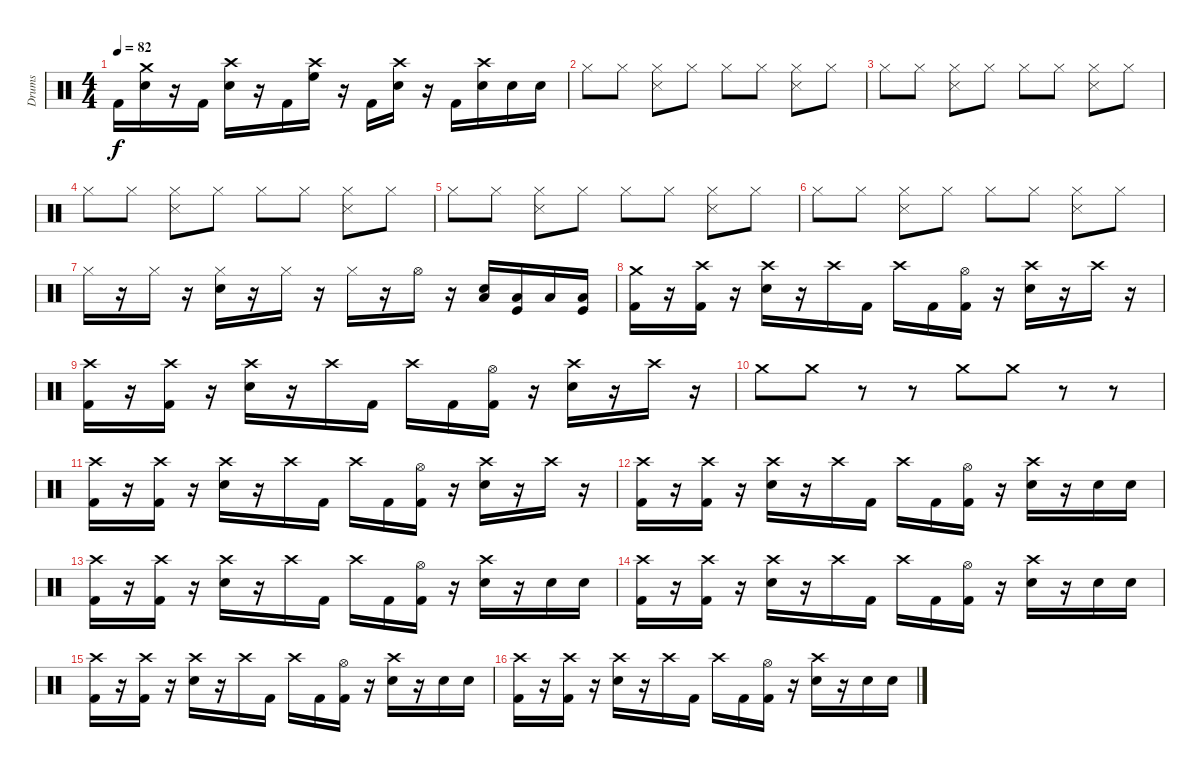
\track ("Drums" "Drums") {instrument percussion}
\staff {score}
\articulation defaults
\ts (4 4)
\tempo 82
\clef neutral
\ks c "Kick (hit) 2".16{dy f}
("Crash medium (hit)" "Electric Snare (hit)").16 r.16 "Kick (hit) 2".16 ("Crash high (hit)" "Electric Snare (hit)").16 r.16 "Kick (hit) 2".16 ("Crash high (hit)" "High Floor Tom (hit)").16 r.16 "Kick (hit) 2".16 ("Crash high (hit)" "Electric Snare (hit)").16 r.16 "Kick (hit) 2".16 ("Crash high (hit)" "Electric Snare (hit)").16 "Electric Snare (hit)".16 "Electric Snare (hit)".16 |
"Hi-Hat (closed)".8 "Hi-Hat (closed)".8 ("Hi-Hat (closed)" "Snare (side stick) 3").8 "Hi-Hat (closed)".8 "Hi-Hat (closed)".8 "Hi-Hat (closed)".8 ("Hi-Hat (closed)" "Snare (side stick) 3").8 "Hi-Hat (closed)".8 |
"Hi-Hat (closed)".8 "Hi-Hat (closed)".8 ("Hi-Hat (closed)" "Snare (side stick) 3").8 "Hi-Hat (closed)".8 "Hi-Hat (closed)".8 "Hi-Hat (closed)".8 ("Hi-Hat (closed)" "Snare (side stick) 3").8 "Hi-Hat (closed)".8 |
"Hi-Hat (closed)".8 "Hi-Hat (closed)".8 ("Hi-Hat (closed)" "Snare (side stick) 3").8 "Hi-Hat (closed)".8 "Hi-Hat (closed)".8 "Hi-Hat (closed)".8 ("Hi-Hat (closed)" "Snare (side stick) 3").8 "Hi-Hat (closed)".8 |
"Hi-Hat (closed)".8 "Hi-Hat (closed)".8 ("Hi-Hat (closed)" "Snare (side stick) 3").8 "Hi-Hat (closed)".8 "Hi-Hat (closed)".8 "Hi-Hat (closed)".8 ("Hi-Hat (closed)" "Snare (side stick) 3").8 "Hi-Hat (closed)".8 |
"Hi-Hat (closed)".8 "Hi-Hat (closed)".8 ("Hi-Hat (closed)" "Snare (side stick) 3").8 "Hi-Hat (closed)".8 "Hi-Hat (closed)".8 "Hi-Hat (closed)".8 ("Hi-Hat (closed)" "Snare (side stick) 3").8 "Hi-Hat (closed)".8 |
"Hi-Hat (closed)".16 r.16 "Hi-Hat (closed)".16 r.16 ("Hi-Hat (closed)" "Electric Snare (hit)").16 r.16 "Hi-Hat (closed)".16 r.16 "Hi-Hat (closed)".16 r.16 "Hi-Hat (open)".16 r.16 ("Low Tom (hit)" "Electric Snare (hit)").16 ("Low Tom (hit)" "Kick (hit)").16 "Low Tom (hit)".16 ("Low Tom (hit)" "Kick (hit)").16 |
("Crash medium (hit)" "Kick (hit) 2").16 r.16 ("Crash high (hit)" "Kick (hit) 2").16 r.16 ("Crash high (hit)" "Electric Snare (hit)").16 r.16 "Crash high (hit)".16 "Kick (hit) 2".16 "Crash high (hit)".16 "Kick (hit) 2".16 ("Hi-Hat (open)" "Kick (hit) 2").16 r.16 ("Crash high (hit)" "Electric Snare (hit)").16 r.16 "Crash high (hit)".16 r.16 |
("Crash high (hit)" "Kick (hit) 2").16 r.16 ("Crash high (hit)" "Kick (hit) 2").16 r.16 ("Crash high (hit)" "Electric Snare (hit)").16 r.16 "Crash high (hit)".16 "Kick (hit) 2".16 "Crash high (hit)".16 "Kick (hit) 2".16 ("Hi-Hat (open)" "Kick (hit) 2").16 r.16 ("Crash high (hit)" "Electric Snare (hit)").16 r.16 "Crash high (hit)".16 r.16 |
"Crash medium (hit)".8 "Crash medium (hit)".8 r.8 r.8 "Crash medium (hit)".8 "Crash medium (hit)".8 r.8 r.8 |
("Crash high (hit)" "Kick (hit) 2").16 r.16 ("Crash high (hit)" "Kick (hit) 2").16 r.16 ("Crash high (hit)" "Electric Snare (hit)").16 r.16 "Crash high (hit)".16 "Kick (hit) 2".16 "Crash high (hit)".16 "Kick (hit) 2".16 ("Hi-Hat (open)" "Kick (hit) 2").16 r.16 ("Crash high (hit)" "Electric Snare (hit)").16 r.16 "Crash high (hit)".16 r.16 |
("Crash high (hit)" "Kick (hit) 2").16 r.16 ("Crash high (hit)" "Kick (hit) 2").16 r.16 ("Crash high (hit)" "Electric Snare (hit)").16 r.16 "Crash high (hit)".16 "Kick (hit) 2".16 "Crash high (hit)".16 "Kick (hit) 2".16 ("Hi-Hat (open)" "Kick (hit) 2").16 r.16 ("Crash high (hit)" "Electric Snare (hit)").16 r.16 "Electric Snare (hit)".16 "Electric Snare (hit)".16 |
("Crash high (hit)" "Kick (hit) 2").16 r.16 ("Crash high (hit)" "Kick (hit) 2").16 r.16 ("Crash high (hit)" "Electric Snare (hit)").16 r.16 "Crash high (hit)".16 "Kick (hit) 2".16 "Crash high (hit)".16 "Kick (hit) 2".16 ("Hi-Hat (open)" "Kick (hit) 2").16 r.16 ("Crash high (hit)" "Electric Snare (hit)").16 r.16 "Electric Snare (hit)".16 "Electric Snare (hit)".16 |
("Crash high (hit)" "Kick (hit) 2").16 r.16 ("Crash high (hit)" "Kick (hit) 2").16 r.16 ("Crash high (hit)" "Electric Snare (hit)").16 r.16 "Crash high (hit)".16 "Kick (hit) 2".16 "Crash high (hit)".16 "Kick (hit) 2".16 ("Hi-Hat (open)" "Kick (hit) 2").16 r.16 ("Crash high (hit)" "Electric Snare (hit)").16 r.16 "Electric Snare (hit)".16 "Electric Snare (hit)".16 |
("Crash high (hit)" "Kick (hit) 2").16 r.16 ("Crash high (hit)" "Kick (hit) 2").16 r.16 ("Crash high (hit)" "Electric Snare (hit)").16 r.16 "Crash high (hit)".16 "Kick (hit) 2".16 "Crash high (hit)".16 "Kick (hit) 2".16 ("Hi-Hat (open)" "Kick (hit) 2").16 r.16 ("Crash high (hit)" "Electric Snare (hit)").16 r.16 "Electric Snare (hit)".16 "Electric Snare (hit)".16 |
("Crash high (hit)" "Kick (hit) 2").16 r.16 ("Crash high (hit)" "Kick (hit) 2").16 r.16 ("Crash high (hit)" "Electric Snare (hit)").16 r.16 "Crash high (hit)".16 "Kick (hit) 2".16 "Crash high (hit)".16 "Kick (hit) 2".16 ("Hi-Hat (open)" "Kick (hit) 2").16 r.16 ("Crash high (hit)" "Electric Snare (hit)").16 r.16 "Electric Snare (hit)".16 "Electric Snare (hit)".16
